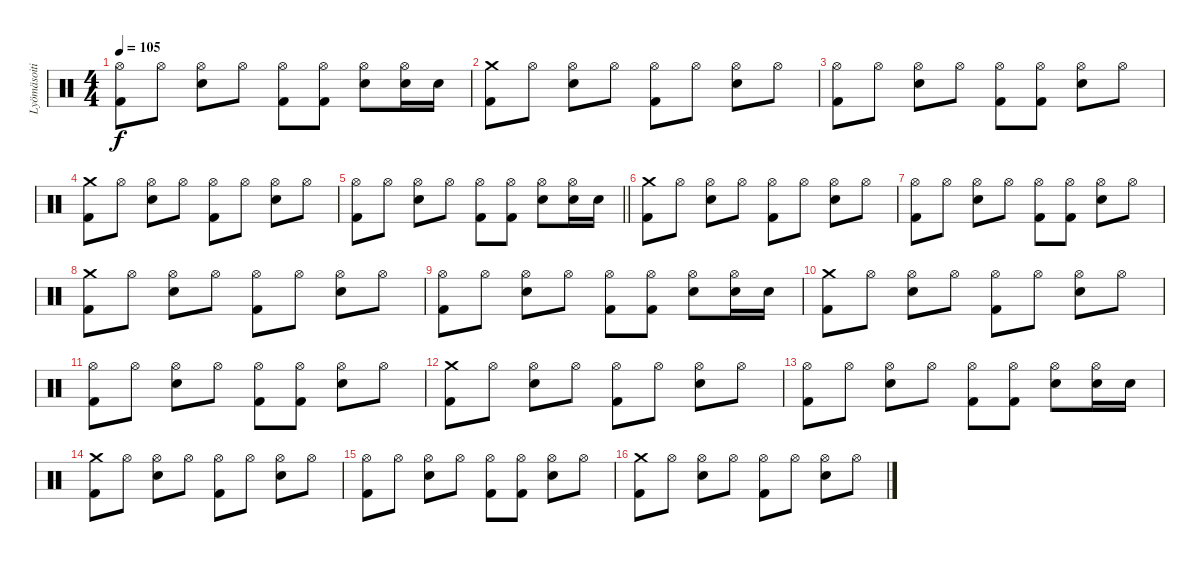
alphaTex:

\track ("Lyömäsoitin" "Lyömäsoiti") {instrument percussion}
\staff {score}
\articulation defaults
\ts (4 4)
\tempo 105
\clef neutral
\ks c
("Hi-Hat (open)" "Kick (hit) 2").8{dy f} "Hi-Hat (open)".8 ("Hi-Hat (open)" "Snare (hit) 2").8 "Hi-Hat (open)".8 ("Hi-Hat (open)" "Kick (hit) 2").8 ("Hi-Hat (open)" "Kick (hit) 2").8 ("Hi-Hat (open)" "Snare (hit) 2").8 ("Hi-Hat (open)" "Snare (hit) 2").16 "Snare (hit) 2".16 |
("Crash medium (hit)" "Kick (hit) 2").8 "Hi-Hat (open)".8 ("Hi-Hat (open)" "Snare (hit) 2").8 "Hi-Hat (open)".8 ("Hi-Hat (open)" "Kick (hit) 2").8 "Hi-Hat (open)".8 ("Hi-Hat (open)" "Snare (hit) 2").8 "Hi-Hat (open)".8 |
("Hi-Hat (open)" "Kick (hit) 2").8 "Hi-Hat (open)".8 ("Hi-Hat (open)" "Snare (hit) 2").8 "Hi-Hat (open)".8 ("Hi-Hat (open)" "Kick (hit) 2").8 ("Hi-Hat (open)" "Kick (hit) 2").8 ("Hi-Hat (open)" "Snare (hit) 2").8 "Hi-Hat (open)".8 |
("Crash medium (hit)" "Kick (hit) 2").8 "Hi-Hat (open)".8 ("Hi-Hat (open)" "Snare (hit) 2").8 "Hi-Hat (open)".8 ("Hi-Hat (open)" "Kick (hit) 2").8 "Hi-Hat (open)".8 ("Hi-Hat (open)" "Snare (hit) 2").8 "Hi-Hat (open)".8 |
\barLineRight lightlight
("Hi-Hat (open)" "Kick (hit) 2").8 "Hi-Hat (open)".8 ("Hi-Hat (open)" "Snare (hit) 2").8 "Hi-Hat (open)".8 ("Hi-Hat (open)" "Kick (hit) 2").8 ("Hi-Hat (open)" "Kick (hit) 2").8 ("Hi-Hat (open)" "Snare (hit) 2").8 ("Hi-Hat (open)" "Snare (hit) 2").16 "Snare (hit) 2".16 |
("Crash medium (hit)" "Kick (hit) 2").8 "Hi-Hat (open)".8 ("Hi-Hat (open)" "Snare (hit) 2").8 "Hi-Hat (open)".8 ("Hi-Hat (open)" "Kick (hit) 2").8 "Hi-Hat (open)".8 ("Hi-Hat (open)" "Snare (hit) 2").8 "Hi-Hat (open)".8 |
("Hi-Hat (open)" "Kick (hit) 2").8 "Hi-Hat (open)".8 ("Hi-Hat (open)" "Snare (hit) 2").8 "Hi-Hat (open)".8 ("Hi-Hat (open)" "Kick (hit) 2").8 ("Hi-Hat (open)" "Kick (hit) 2").8 ("Hi-Hat (open)" "Snare (hit) 2").8 "Hi-Hat (open)".8 |
("Crash medium (hit)" "Kick (hit) 2").8 "Hi-Hat (open)".8 ("Hi-Hat (open)" "Snare (hit) 2").8 "Hi-Hat (open)".8 ("Hi-Hat (open)" "Kick (hit) 2").8 "Hi-Hat (open)".8 ("Hi-Hat (open)" "Snare (hit) 2").8 "Hi-Hat (open)".8 |
("Hi-Hat (open)" "Kick (hit) 2").8 "Hi-Hat (open)".8 ("Hi-Hat (open)" "Snare (hit) 2").8 "Hi-Hat (open)".8 ("Hi-Hat (open)" "Kick (hit) 2").8 ("Hi-Hat (open)" "Kick (hit) 2").8 ("Hi-Hat (open)" "Snare (hit) 2").8 ("Hi-Hat (open)" "Snare (hit) 2").16 "Snare (hit) 2".16 |
("Crash medium (hit)" "Kick (hit) 2").8 "Hi-Hat (open)".8 ("Hi-Hat (open)" "Snare (hit) 2").8 "Hi-Hat (open)".8 ("Hi-Hat (open)" "Kick (hit) 2").8 "Hi-Hat (open)".8 ("Hi-Hat (open)" "Snare (hit) 2").8 "Hi-Hat (open)".8 |
("Hi-Hat (open)" "Kick (hit) 2").8 "Hi-Hat (open)".8 ("Hi-Hat (open)" "Snare (hit) 2").8 "Hi-Hat (open)".8 ("Hi-Hat (open)" "Kick (hit) 2").8 ("Hi-Hat (open)" "Kick (hit) 2").8 ("Hi-Hat (open)" "Snare (hit) 2").8 "Hi-Hat (open)".8 |
("Crash medium (hit)" "Kick (hit) 2").8 "Hi-Hat (open)".8 ("Hi-Hat (open)" "Snare (hit) 2").8 "Hi-Hat (open)".8 ("Hi-Hat (open)" "Kick (hit) 2").8 "Hi-Hat (open)".8 ("Hi-Hat (open)" "Snare (hit) 2").8 "Hi-Hat (open)".8 |
("Hi-Hat (open)" "Kick (hit) 2").8 "Hi-Hat (open)".8 ("Hi-Hat (open)" "Snare (hit) 2").8 "Hi-Hat (open)".8 ("Hi-Hat (open)" "Kick (hit) 2").8 ("Hi-Hat (open)" "Kick (hit) 2").8 ("Hi-Hat (open)" "Snare (hit) 2").8 ("Hi-Hat (open)" "Snare (hit) 2").16 "Snare (hit) 2".16 |
("Crash medium (hit)" "Kick (hit) 2").8 "Hi-Hat (open)".8 ("Hi-Hat (open)" "Snare (hit) 2").8 "Hi-Hat (open)".8 ("Hi-Hat (open)" "Kick (hit) 2").8 "Hi-Hat (open)".8 ("Hi-Hat (open)" "Snare (hit) 2").8 "Hi-Hat (open)".8 |
("Hi-Hat (open)" "Kick (hit) 2").8 "Hi-Hat (open)".8 ("Hi-Hat (open)" "Snare (hit) 2").8 "Hi-Hat (open)".8 ("Hi-Hat (open)" "Kick (hit) 2").8 ("Hi-Hat (open)" "Kick (hit) 2").8 ("Hi-Hat (open)" "Snare (hit) 2").8 "Hi-Hat (open)".8 |
("Crash medium (hit)" "Kick (hit) 2").8 "Hi-Hat (open)".8 ("Hi-Hat (open)" "Snare (hit) 2").8 "Hi-Hat (open)".8 ("Hi-Hat (open)" "Kick (hit) 2").8 "Hi-Hat (open)".8 ("Hi-Hat (open)" "Snare (hit) 2").8 "Hi-Hat (open)".8
